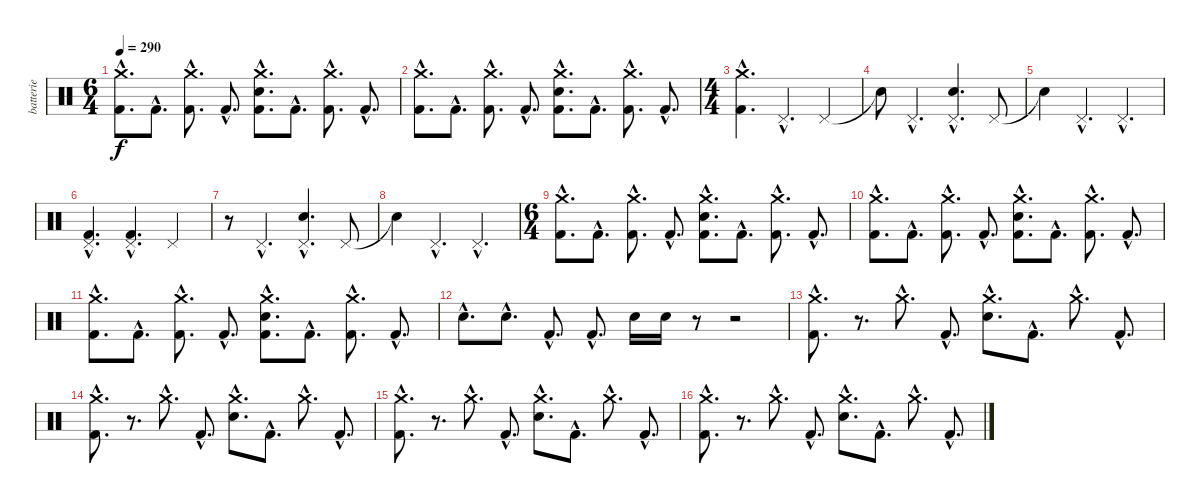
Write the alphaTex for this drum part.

\track ("batterie" "batterie") {instrument percussion}
\staff {score}
\articulation defaults
\ts (6 4)
\tempo 290
\clef neutral
\ks c
("Crash medium (hit)"{hac} "Kick (hit) 2"{hac}).8{d dy f} "Kick (hit) 2"{hac}.8{d} ("Crash medium (hit)"{hac} "Kick (hit) 2"{hac}).8{d} "Kick (hit) 2"{hac}.8{d} ("Crash medium (hit)"{hac} "Electric Snare (hit)"{hac} "Kick (hit) 2"{hac}).8{d} "Kick (hit) 2"{hac}.8{d} ("Crash medium (hit)"{hac} "Kick (hit) 2"{hac}).8{d} "Kick (hit) 2"{hac}.8{d} |
("Crash medium (hit)"{hac} "Kick (hit) 2"{hac}).8{d} "Kick (hit) 2"{hac}.8{d} ("Crash medium (hit)"{hac} "Kick (hit) 2"{hac}).8{d} "Kick (hit) 2"{hac}.8{d} ("Crash medium (hit)"{hac} "Electric Snare (hit)"{hac} "Kick (hit) 2"{hac}).8{d} "Kick (hit) 2"{hac}.8{d} ("Crash medium (hit)"{hac} "Kick (hit) 2"{hac}).8{d} "Kick (hit) 2"{hac}.8{d} |
\ts (4 4)
("Crash medium (hit)"{hac} "Kick (hit) 2"{hac}).4{d} "Pedal Hi-Hat (hit)"{hac}.4{d} "Pedal Hi-Hat (hit)".4 |
"Snare (hit)"{t}.8 "Pedal Hi-Hat (hit)"{hac}.4{d} ("Pedal Hi-Hat (hit)"{hac} "Electric Snare (hit)"{hac}).4{d} "Pedal Hi-Hat (hit)".8 |
"Snare (hit)"{t}.4 "Pedal Hi-Hat (hit)"{hac}.4{d} "Pedal Hi-Hat (hit)"{hac}.4{d} |
("Pedal Hi-Hat (hit)"{hac} "Kick (hit) 2"{hac}).4{d} ("Pedal Hi-Hat (hit)"{hac} "Kick (hit) 2"{hac}).4{d} "Pedal Hi-Hat (hit)".4 |
r.8 "Pedal Hi-Hat (hit)"{hac}.4{d} ("Pedal Hi-Hat (hit)"{hac} "Electric Snare (hit)"{hac}).4{d} "Pedal Hi-Hat (hit)".8 |
"Snare (hit)"{t}.4 "Pedal Hi-Hat (hit)"{hac}.4{d} "Pedal Hi-Hat (hit)"{hac}.4{d} |
\ts (6 4)
("Crash medium (hit)"{hac} "Kick (hit) 2"{hac}).8{d} "Kick (hit) 2"{hac}.8{d} ("Crash medium (hit)"{hac} "Kick (hit) 2"{hac}).8{d} "Kick (hit) 2"{hac}.8{d} ("Crash medium (hit)"{hac} "Electric Snare (hit)"{hac} "Kick (hit) 2"{hac}).8{d} "Kick (hit) 2"{hac}.8{d} ("Crash medium (hit)"{hac} "Kick (hit) 2"{hac}).8{d} "Kick (hit) 2"{hac}.8{d} |
("Crash medium (hit)"{hac} "Kick (hit) 2"{hac}).8{d} "Kick (hit) 2"{hac}.8{d} ("Crash medium (hit)"{hac} "Kick (hit) 2"{hac}).8{d} "Kick (hit) 2"{hac}.8{d} ("Crash medium (hit)"{hac} "Electric Snare (hit)"{hac} "Kick (hit) 2"{hac}).8{d} "Kick (hit) 2"{hac}.8{d} ("Crash medium (hit)"{hac} "Kick (hit) 2"{hac}).8{d} "Kick (hit) 2"{hac}.8{d} |
("Crash medium (hit)"{hac} "Kick (hit) 2"{hac}).8{d} "Kick (hit) 2"{hac}.8{d} ("Crash medium (hit)"{hac} "Kick (hit) 2"{hac}).8{d} "Kick (hit) 2"{hac}.8{d} ("Crash medium (hit)"{hac} "Electric Snare (hit)"{hac} "Kick (hit) 2"{hac}).8{d} "Kick (hit) 2"{hac}.8{d} ("Crash medium (hit)"{hac} "Kick (hit) 2"{hac}).8{d} "Kick (hit) 2"{hac}.8{d} |
"Electric Snare (hit)"{hac}.8{d} "Electric Snare (hit)"{hac}.8{d} "Kick (hit) 2"{hac}.8{d} "Kick (hit) 2"{hac}.8{d} "Electric Snare (hit)".16 "Electric Snare (hit)".16 r.8 r.2 |
("Crash medium (hit)"{hac} "Kick (hit) 2"{hac}).8{d} r.8{d} "Crash medium (hit)"{hac}.8{d} "Kick (hit) 2"{hac}.8{d} ("Crash medium (hit)"{hac} "Electric Snare (hit)"{hac}).8{d} "Kick (hit) 2"{hac}.8{d} "Crash medium (hit)"{hac}.8{d} "Kick (hit) 2"{hac}.8{d} |
("Crash medium (hit)"{hac} "Kick (hit) 2"{hac}).8{d} r.8{d} "Crash medium (hit)"{hac}.8{d} "Kick (hit) 2"{hac}.8{d} ("Crash medium (hit)"{hac} "Electric Snare (hit)"{hac}).8{d} "Kick (hit) 2"{hac}.8{d} "Crash medium (hit)"{hac}.8{d} "Kick (hit) 2"{hac}.8{d} |
("Crash medium (hit)"{hac} "Kick (hit) 2"{hac}).8{d} r.8{d} "Crash medium (hit)"{hac}.8{d} "Kick (hit) 2"{hac}.8{d} ("Crash medium (hit)"{hac} "Electric Snare (hit)"{hac}).8{d} "Kick (hit) 2"{hac}.8{d} "Crash medium (hit)"{hac}.8{d} "Kick (hit) 2"{hac}.8{d} |
("Crash medium (hit)"{hac} "Kick (hit) 2"{hac}).8{d} r.8{d} "Crash medium (hit)"{hac}.8{d} "Kick (hit) 2"{hac}.8{d} ("Crash medium (hit)"{hac} "Electric Snare (hit)"{hac}).8{d} "Kick (hit) 2"{hac}.8{d} "Crash medium (hit)"{hac}.8{d} "Kick (hit) 2"{hac}.8{d}
